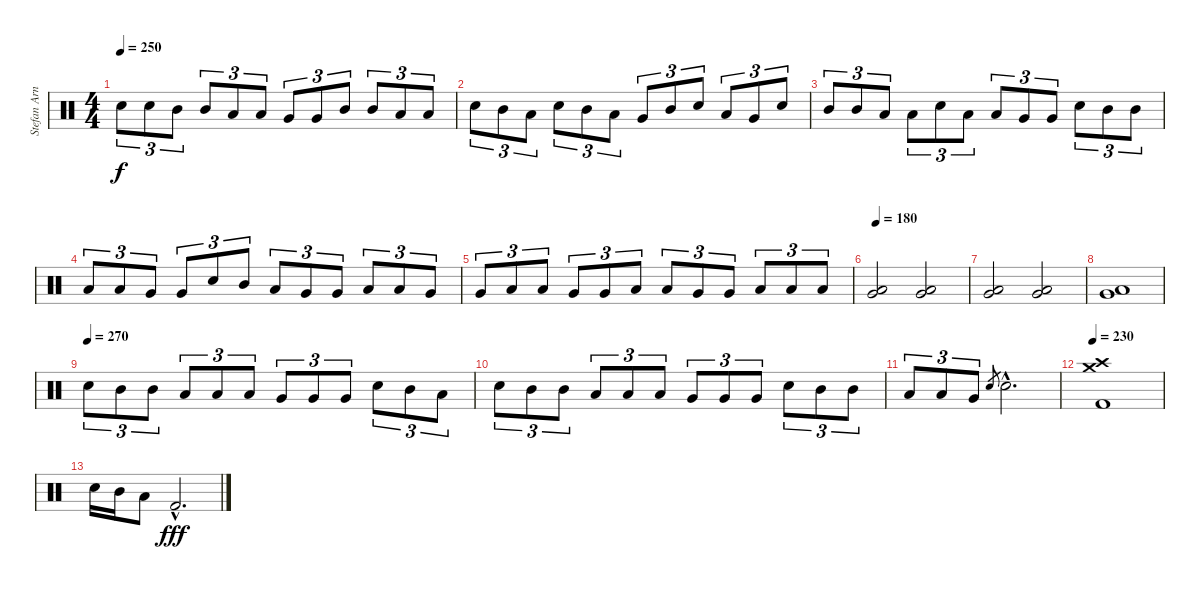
\track ("Stefan Arnold" "Stefan Arn") {instrument percussion}
\staff {score}
\articulation defaults
\ts (4 4)
\tempo 250
\clef neutral
\ks c "Electric Snare (hit)".8{tu (3 2) dy f} "Electric Snare (hit)".8{tu (3 2)} "Mid Tom (hit)".8{tu (3 2)} "Mid Tom (hit)".8{tu (3 2)} "Low Tom (hit)".8{tu (3 2)} "Low Tom (hit)".8{tu (3 2)} "Very Low Tom (hit)".8{tu (3 2)} "Very Low Tom (hit)".8{tu (3 2)} "Mid Tom (hit)".8{tu (3 2)} "Mid Tom (hit)".8{tu (3 2)} "Low Tom (hit)".8{tu (3 2)} "Low Tom (hit)".8{tu (3 2)}
|
"Electric Snare (hit)".8{tu (3 2)} "Mid Tom (hit)".8{tu (3 2)} "Low Tom (hit)".8{tu (3 2)} "Electric Snare (hit)".8{tu (3 2)} "Mid Tom (hit)".8{tu (3 2)} "Low Tom (hit)".8{tu (3 2)} "Very Low Tom (hit)".8{tu (3 2)} "Mid Tom (hit)".8{tu (3 2)} "Electric Snare (hit)".8{tu (3 2)} "Low Tom (hit)".8{tu (3 2)} "Very Low Tom (hit)".8{tu (3 2)} "Electric Snare (hit)".8{tu (3 2)} |
"Mid Tom (hit)".8{tu (3 2)} "Mid Tom (hit)".8{tu (3 2)} "Low Tom (hit)".8{tu (3 2)} "Low Tom (hit)".8{tu (3 2)} "Electric Snare (hit)".8{tu (3 2)} "Low Tom (hit)".8{tu (3 2)} "Low Tom (hit)".8{tu (3 2)} "Very Low Tom (hit)".8{tu (3 2)} "Very Low Tom (hit)".8{tu (3 2)} "Electric Snare (hit)".8{tu (3 2)} "Mid Tom (hit)".8{tu (3 2)} "Mid Tom (hit)".8{tu (3 2)} |
"Low Tom (hit)".8{tu (3 2)} "Low Tom (hit)".8{tu (3 2)} "Very Low Tom (hit)".8{tu (3 2)} "Very Low Tom (hit)".8{tu (3 2)} "Electric Snare (hit)".8{tu (3 2)} "Mid Tom (hit)".8{tu (3 2)} "Low Tom (hit)".8{tu (3 2)} "Very Low Tom (hit)".8{tu (3 2)} "Very Low Tom (hit)".8{tu (3 2)} "Low Floor Tom (hit)".8{tu (3 2)} "Low Floor Tom (hit)".8{tu (3 2)} "Very Low Tom (hit)".8{tu (3 2)} |
"Very Low Tom (hit)".8{tu (3 2)} "Low Tom (hit)".8{tu (3 2)} "Low Tom (hit)".8{tu (3 2)} "Very Low Tom (hit)".8{tu (3 2)} "Very Low Tom (hit)".8{tu (3 2)} "Low Floor Tom (hit)".8{tu (3 2)} "Low Floor Tom (hit)".8{tu (3 2)} "Very Low Tom (hit)".8{tu (3 2)} "Very Low Tom (hit)".8{tu (3 2)} "Low Floor Tom (hit)".8{tu (3 2)} "Low Floor Tom (hit)".8{tu (3 2)} "Low Floor Tom (hit)".8{tu (3 2)} |
\tempo 180
("Very Low Tom (hit)" "Low Floor Tom (hit)").2 ("Very Low Tom (hit)" "Low Floor Tom (hit)").2 |
("Very Low Tom (hit)" "Low Floor Tom (hit)").2 ("Very Low Tom (hit)" "Low Floor Tom (hit)").2 |
("Very Low Tom (hit)" "Low Floor Tom (hit)").1 |
\tempo (270)
"Electric Snare (hit)".8{tu (3 2)} "Mid Tom (hit)".8{tu (3 2)} "Mid Tom (hit)".8{tu (3 2)} "Low Tom (hit)".8{tu (3 2)} "Low Tom (hit)".8{tu (3 2)} "Low Tom (hit)".8{tu (3 2)} "Very Low Tom (hit)".8{tu (3 2)} "Very Low Tom (hit)".8{tu (3 2)} "Very Low Tom (hit)".8{tu (3 2)} "Electric Snare (hit)".8{tu (3 2)} "Mid Tom (hit)".8{tu (3 2)} "Low Tom (hit)".8{tu (3 2)} |
"Electric Snare (hit)".8{tu (3 2)} "Mid Tom (hit)".8{tu (3 2)} "Mid Tom (hit)".8{tu (3 2)} "Low Tom (hit)".8{tu (3 2)} "Low Tom (hit)".8{tu (3 2)} "Low Tom (hit)".8{tu (3 2)} "Very Low Tom (hit)".8{tu (3 2)} "Very Low Tom (hit)".8{tu (3 2)} "Very Low Tom (hit)".8{tu (3 2)} "Electric Snare (hit)".8{tu (3 2)} "Mid Tom (hit)".8{tu (3 2)} "Mid Tom (hit)".8{tu (3 2)} |
"Low Tom (hit)".8{tu (3 2)} "Low Tom (hit)".8{tu (3 2)} "Very Low Tom (hit)".8{tu (3 2)} "Electric Snare (hit)".8{gr} "Electric Snare (hit)"{hac}.2{d} |
\tempo 230
("Crash high (hit)" "Crash medium (hit)" "Kick (hit) 2").1 |
"Electric Snare (hit)".16 "Mid Tom (hit)".16 "Low Tom (hit)".8 "Kick (hit) 2"{hac}.2{d dy fff}
